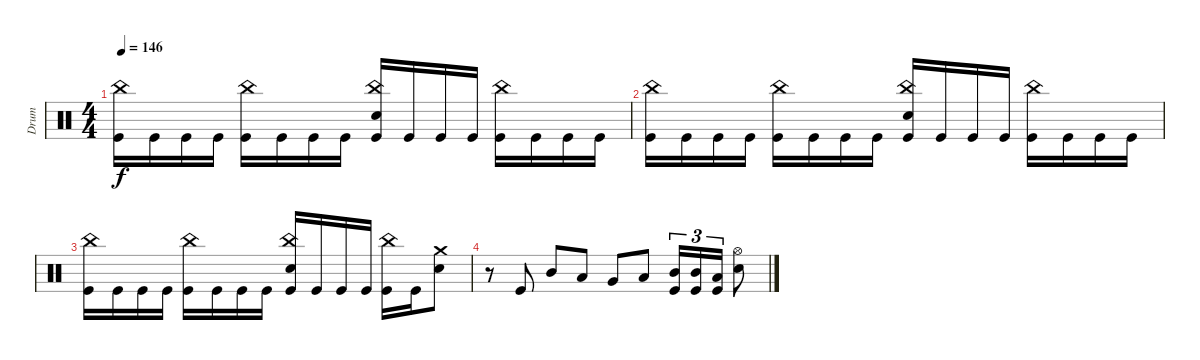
\track ("Drum" "Drum") {instrument percussion}
\staff {score}
\articulation defaults
\ts (4 4)
\tempo 146
\clef neutral
\ks c
("Kick (hit)" "China (hit)").16{dy f} "Kick (hit)".16 "Kick (hit)".16 "Kick (hit)".16 ("Kick (hit)" "China (hit)").16 "Kick (hit)".16 "Kick (hit)".16 "Kick (hit)".16 ("Kick (hit)" "Electric Snare (hit)" "China (hit)").16 "Kick (hit)".16 "Kick (hit)".16 "Kick (hit)".16 ("Kick (hit)" "China (hit)").16 "Kick (hit)".16 "Kick (hit)".16 "Kick (hit)".16 |
("Kick (hit)" "China (hit)").16 "Kick (hit)".16 "Kick (hit)".16 "Kick (hit)".16 ("Kick (hit)" "China (hit)").16 "Kick (hit)".16 "Kick (hit)".16 "Kick (hit)".16 ("Kick (hit)" "Electric Snare (hit)" "China (hit)").16 "Kick (hit)".16 "Kick (hit)".16 "Kick (hit)".16 ("Kick (hit)" "China (hit)").16 "Kick (hit)".16 "Kick (hit)".16 "Kick (hit)".16 |
("Kick (hit)" "China (hit)").16 "Kick (hit)".16 "Kick (hit)".16 "Kick (hit)".16 ("Kick (hit)" "China (hit)").16 "Kick (hit)".16 "Kick (hit)".16 "Kick (hit)".16 ("Kick (hit)" "Electric Snare (hit)" "China (hit)").16 "Kick (hit)".16 "Kick (hit)".16 "Kick (hit)".16 ("Kick (hit)" "China (hit)").16 "Kick (hit)".16 ("Electric Snare (hit)" "Crash medium (hit)").8 |
r.8 "Kick (hit)".8 "Mid Tom (hit)".8 "Low Tom (hit)".8 "Very Low Tom (hit)".8 "Low Floor Tom (hit)".8 ("Kick (hit)" "Mid Tom (hit)").16{tu (3 2)} ("Kick (hit)" "Mid Tom (hit)").16{tu (3 2)} ("Kick (hit)" "Low Tom (hit)").16{tu (3 2)} ("Electric Snare (hit)" "Hi-Hat (open)").8
